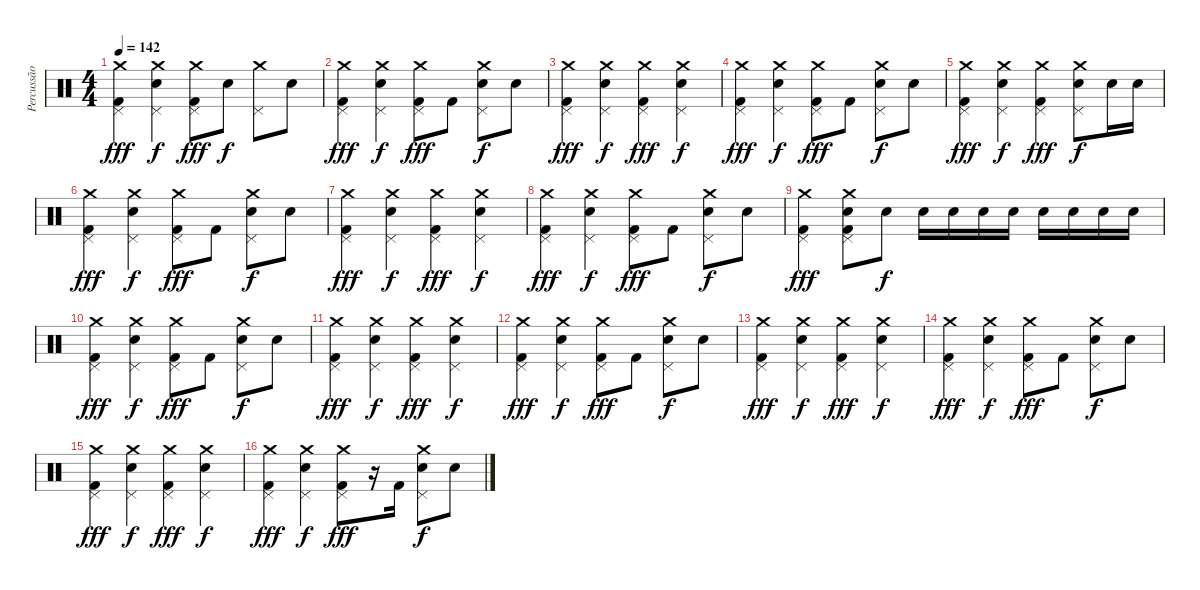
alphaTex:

\track ("Percussão" "Percussão") {instrument percussion}
\staff {score}
\articulation defaults
\ts (4 4)
\tempo 142
\clef neutral
\ks c
("Crash medium (hit)" "Pedal Hi-Hat (hit)" "Kick (hit) 2").4{dy fff} ("Crash medium (hit)" "Pedal Hi-Hat (hit)" "Electric Snare (hit)").4{dy f} ("Crash medium (hit)" "Pedal Hi-Hat (hit)" "Kick (hit) 2").8{dy fff} "Electric Snare (hit)".8{dy f} ("Crash medium (hit)" "Pedal Hi-Hat (hit)").8 "Electric Snare (hit)".8 |
("Crash medium (hit)" "Pedal Hi-Hat (hit)" "Kick (hit) 2").4{dy fff} ("Crash medium (hit)" "Pedal Hi-Hat (hit)" "Electric Snare (hit)").4{dy f} ("Crash medium (hit)" "Pedal Hi-Hat (hit)" "Kick (hit) 2").8{dy fff} "Kick (hit) 2".8 ("Crash medium (hit)" "Pedal Hi-Hat (hit)" "Electric Snare (hit)").8{dy f} "Electric Snare (hit)".8 |
("Crash medium (hit)" "Pedal Hi-Hat (hit)" "Kick (hit) 2").4{dy fff} ("Crash medium (hit)" "Pedal Hi-Hat (hit)" "Electric Snare (hit)").4{dy f} ("Crash medium (hit)" "Pedal Hi-Hat (hit)" "Kick (hit) 2").4{dy fff} ("Crash medium (hit)" "Pedal Hi-Hat (hit)" "Electric Snare (hit)").4{dy f} |
("Crash medium (hit)" "Pedal Hi-Hat (hit)" "Kick (hit) 2").4{dy fff} ("Crash medium (hit)" "Pedal Hi-Hat (hit)" "Electric Snare (hit)").4{dy f} ("Crash medium (hit)" "Pedal Hi-Hat (hit)" "Kick (hit) 2").8{dy fff} "Kick (hit) 2".8 ("Crash medium (hit)" "Pedal Hi-Hat (hit)" "Electric Snare (hit)").8{dy f} "Electric Snare (hit)".8 |
("Crash medium (hit)" "Pedal Hi-Hat (hit)" "Kick (hit) 2").4{dy fff} ("Crash medium (hit)" "Pedal Hi-Hat (hit)" "Electric Snare (hit)").4{dy f} ("Crash medium (hit)" "Pedal Hi-Hat (hit)" "Kick (hit) 2").4{dy fff} ("Crash medium (hit)" "Pedal Hi-Hat (hit)" "Electric Snare (hit)").8{dy f} "Electric Snare (hit)".16 "Electric Snare (hit)".16 |
("Crash medium (hit)" "Pedal Hi-Hat (hit)" "Kick (hit) 2").4{dy fff} ("Crash medium (hit)" "Pedal Hi-Hat (hit)" "Electric Snare (hit)").4{dy f} ("Crash medium (hit)" "Pedal Hi-Hat (hit)" "Kick (hit) 2").8{dy fff} "Kick (hit) 2".8 ("Crash medium (hit)" "Pedal Hi-Hat (hit)" "Electric Snare (hit)").8{dy f} "Electric Snare (hit)".8 |
("Crash medium (hit)" "Pedal Hi-Hat (hit)" "Kick (hit) 2").4{dy fff} ("Crash medium (hit)" "Pedal Hi-Hat (hit)" "Electric Snare (hit)").4{dy f} ("Crash medium (hit)" "Pedal Hi-Hat (hit)" "Kick (hit) 2").4{dy fff} ("Crash medium (hit)" "Pedal Hi-Hat (hit)" "Electric Snare (hit)").4{dy f} |
("Crash medium (hit)" "Pedal Hi-Hat (hit)" "Kick (hit) 2").4{dy fff} ("Crash medium (hit)" "Pedal Hi-Hat (hit)" "Electric Snare (hit)").4{dy f} ("Crash medium (hit)" "Pedal Hi-Hat (hit)" "Kick (hit) 2").8{dy fff} "Kick (hit) 2".8 ("Crash medium (hit)" "Pedal Hi-Hat (hit)" "Electric Snare (hit)").8{dy f} "Electric Snare (hit)".8 |
("Crash medium (hit)" "Pedal Hi-Hat (hit)" "Kick (hit) 2").4{dy fff} ("Crash medium (hit)" "Pedal Hi-Hat (hit)" "Electric Snare (hit)" "Kick (hit) 2").8 "Electric Snare (hit)".8{dy f} "Electric Snare (hit)".16 "Electric Snare (hit)".16 "Electric Snare (hit)".16 "Electric Snare (hit)".16 "Electric Snare (hit)".16 "Electric Snare (hit)".16 "Electric Snare (hit)".16 "Electric Snare (hit)".16 |
("Crash medium (hit)" "Pedal Hi-Hat (hit)" "Kick (hit) 2").4{dy fff} ("Crash medium (hit)" "Pedal Hi-Hat (hit)" "Electric Snare (hit)").4{dy f} ("Crash medium (hit)" "Pedal Hi-Hat (hit)" "Kick (hit) 2").8{dy fff} "Kick (hit) 2".8 ("Crash medium (hit)" "Pedal Hi-Hat (hit)" "Electric Snare (hit)").8{dy f} "Electric Snare (hit)".8 |
("Crash medium (hit)" "Pedal Hi-Hat (hit)" "Kick (hit) 2").4{dy fff} ("Crash medium (hit)" "Pedal Hi-Hat (hit)" "Electric Snare (hit)").4{dy f} ("Crash medium (hit)" "Pedal Hi-Hat (hit)" "Kick (hit) 2").4{dy fff} ("Crash medium (hit)" "Pedal Hi-Hat (hit)" "Electric Snare (hit)").4{dy f} |
("Crash medium (hit)" "Pedal Hi-Hat (hit)" "Kick (hit) 2").4{dy fff} ("Crash medium (hit)" "Pedal Hi-Hat (hit)" "Electric Snare (hit)").4{dy f} ("Crash medium (hit)" "Pedal Hi-Hat (hit)" "Kick (hit) 2").8{dy fff} "Kick (hit) 2".8 ("Crash medium (hit)" "Pedal Hi-Hat (hit)" "Electric Snare (hit)").8{dy f} "Electric Snare (hit)".8 |
("Crash medium (hit)" "Pedal Hi-Hat (hit)" "Kick (hit) 2").4{dy fff} ("Crash medium (hit)" "Pedal Hi-Hat (hit)" "Electric Snare (hit)").4{dy f} ("Crash medium (hit)" "Pedal Hi-Hat (hit)" "Kick (hit) 2").4{dy fff} ("Crash medium (hit)" "Pedal Hi-Hat (hit)" "Electric Snare (hit)").4{dy f} |
("Crash medium (hit)" "Pedal Hi-Hat (hit)" "Kick (hit) 2").4{dy fff} ("Crash medium (hit)" "Pedal Hi-Hat (hit)" "Electric Snare (hit)").4{dy f} ("Crash medium (hit)" "Pedal Hi-Hat (hit)" "Kick (hit) 2").8{dy fff} "Kick (hit) 2".8 ("Crash medium (hit)" "Pedal Hi-Hat (hit)" "Electric Snare (hit)").8{dy f} "Electric Snare (hit)".8 |
("Crash medium (hit)" "Pedal Hi-Hat (hit)" "Kick (hit) 2").4{dy fff} ("Crash medium (hit)" "Pedal Hi-Hat (hit)" "Electric Snare (hit)").4{dy f} ("Crash medium (hit)" "Pedal Hi-Hat (hit)" "Kick (hit) 2").4{dy fff} ("Crash medium (hit)" "Pedal Hi-Hat (hit)" "Electric Snare (hit)").4{dy f} |
("Crash medium (hit)" "Pedal Hi-Hat (hit)" "Kick (hit) 2").4{dy fff} ("Crash medium (hit)" "Pedal Hi-Hat (hit)" "Electric Snare (hit)").4{dy f} ("Crash medium (hit)" "Pedal Hi-Hat (hit)" "Kick (hit) 2").8{dy fff} r.16 "Kick (hit) 2".16 ("Crash medium (hit)" "Pedal Hi-Hat (hit)" "Electric Snare (hit)").8{dy f} "Electric Snare (hit)".8
